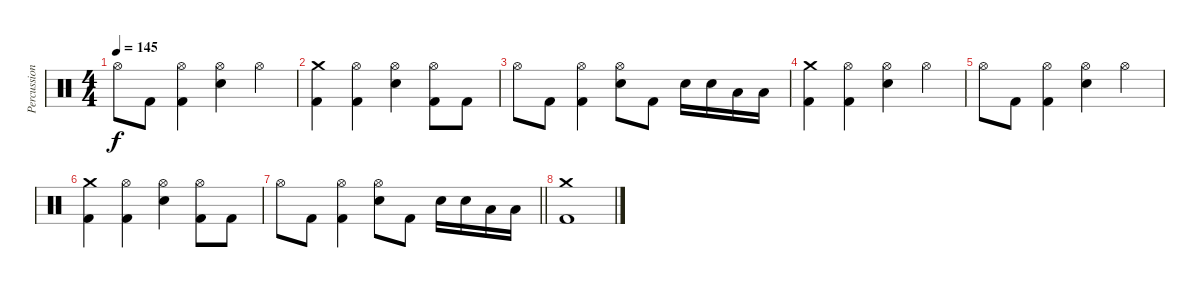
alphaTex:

\track ("Percussion" "Percussion") {instrument percussion}
\staff {score}
\articulation defaults
\ts (4 4)
\tempo 145
\clef neutral
\ks c "Hi-Hat (open)".8{dy f} "Kick (hit) 2".8
("Hi-Hat (open)" "Kick (hit) 2").4 ("Hi-Hat (open)" "Snare (hit) 2").4 "Hi-Hat (open)".4 |
("Crash medium (hit)" "Kick (hit) 2").4 ("Hi-Hat (open)" "Kick (hit) 2").4 ("Hi-Hat (open)" "Snare (hit) 2").4 ("Hi-Hat (open)" "Kick (hit) 2").8 "Kick (hit) 2".8 |
"Hi-Hat (open)".8 "Kick (hit) 2".8 ("Hi-Hat (open)" "Kick (hit) 2").4 ("Hi-Hat (open)" "Snare (hit) 2").8 "Kick (hit) 2".8 "Snare (hit) 2".16 "Snare (hit) 2".16 "Low Floor Tom (hit)".16 "Low Floor Tom (hit)".16 |
("Crash medium (hit)" "Kick (hit) 2").4 ("Hi-Hat (open)" "Kick (hit) 2").4 ("Hi-Hat (open)" "Snare (hit) 2").4 "Hi-Hat (open)".4 |
"Hi-Hat (open)".8 "Kick (hit) 2".8 ("Hi-Hat (open)" "Kick (hit) 2").4 ("Hi-Hat (open)" "Snare (hit) 2").4 "Hi-Hat (open)".4 |
("Crash medium (hit)" "Kick (hit) 2").4 ("Hi-Hat (open)" "Kick (hit) 2").4 ("Hi-Hat (open)" "Snare (hit) 2").4 ("Hi-Hat (open)" "Kick (hit) 2").8 "Kick (hit) 2".8 |
\barLineRight lightlight "Hi-Hat (open)".8 "Kick (hit) 2".8
("Hi-Hat (open)" "Kick (hit) 2").4 ("Hi-Hat (open)" "Snare (hit) 2").8 "Kick (hit) 2".8 "Snare (hit) 2".16 "Snare (hit) 2".16 "Low Floor Tom (hit)".16 "Low Floor Tom (hit)".16 |
("Crash medium (hit)" "Kick (hit) 2").1
